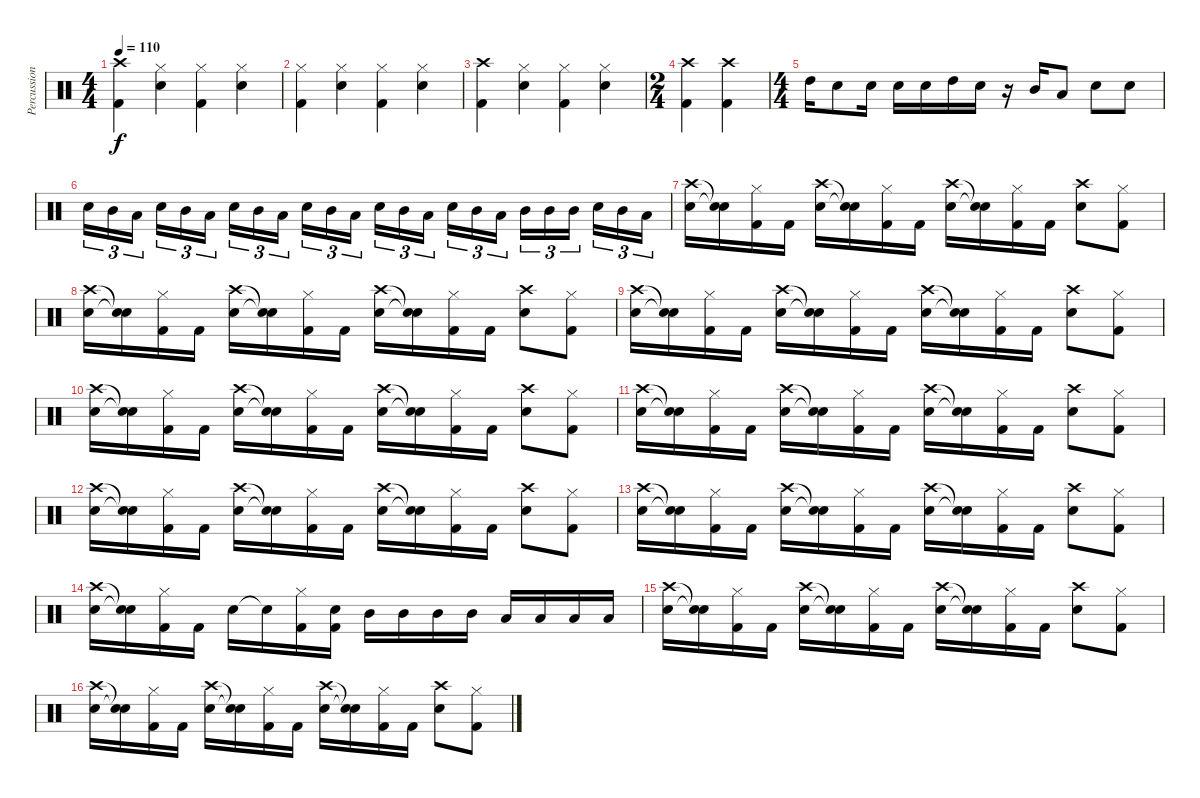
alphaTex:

\track ("Percussion" "Percussion") {instrument percussion}
\staff {score}
\articulation defaults
\ts (4 4)
\tempo 110
\clef neutral
\ks c
("Crash high (hit)" "Kick (hit) 2").4{dy f} ("Hi-Hat (closed)" "Snare (hit) 2").4 ("Hi-Hat (closed)" "Kick (hit) 2").4 ("Hi-Hat (closed)" "Snare (hit) 2").4 |
("Hi-Hat (closed)" "Kick (hit) 2").4 ("Hi-Hat (closed)" "Snare (hit) 2").4 ("Hi-Hat (closed)" "Kick (hit) 2").4 ("Hi-Hat (closed)" "Snare (hit) 2").4 |
("Crash high (hit)" "Kick (hit) 2").4 ("Hi-Hat (closed)" "Snare (hit) 2").4 ("Hi-Hat (closed)" "Kick (hit) 2").4 ("Hi-Hat (closed)" "Snare (hit) 2").4 |
\ts (2 4)
("Crash high (hit)" "Kick (hit) 2").4 ("Crash high (hit)" "Kick (hit) 2").4 |
\ts (4 4)
"High Tom (hit)".16 "Snare (hit) 2".8 "Snare (hit) 2".16 "Snare (hit) 2".16 "Snare (hit) 2".16 "High Tom (hit)".16 "Snare (hit) 2".16 r.16 "Mid Tom (hit)".16 "Low Tom (hit)".8 "Snare (hit) 2".8 "Snare (hit) 2".8 |
"Snare (hit) 2".16{tu (3 2)} "Mid Tom (hit)".16{tu (3 2)} "Low Tom (hit)".16{tu (3 2)} "Snare (hit) 2".16{tu (3 2)} "Mid Tom (hit)".16{tu (3 2)} "Low Tom (hit)".16{tu (3 2)} "Snare (hit) 2".16{tu (3 2)} "Mid Tom (hit)".16{tu (3 2)} "Low Tom (hit)".16{tu (3 2)} "Snare (hit) 2".16{tu (3 2)} "Mid Tom (hit)".16{tu (3 2)} "Low Tom (hit)".16{tu (3 2)} "Snare (hit) 2".16{tu (3 2)} "Mid Tom (hit)".16{tu (3 2)} "Low Tom (hit)".16{tu (3 2)} "Snare (hit) 2".16{tu (3 2)} "Mid Tom (hit)".16{tu (3 2)} "Low Tom (hit)".16{tu (3 2)} "Mid Tom (hit)".16{tu (3 2)} "Mid Tom (hit)".16{tu (3 2)} "Mid Tom (hit)".16{tu (3 2)} "Snare (hit) 2".16{tu (3 2)} "Mid Tom (hit)".16{tu (3 2)} "Low Tom (hit)".16{tu (3 2)} |
("Crash high (hit)" "Snare (hit) 2").16 ("Snare (hit)"{t} "Snare (hit)"{t}).16 ("Hi-Hat (closed)" "Kick (hit) 2").16 "Kick (hit) 2".16 ("Crash high (hit)" "Snare (hit) 2").16 ("Snare (hit)"{t} "Snare (hit)"{t}).16 ("Hi-Hat (closed)" "Kick (hit) 2").16 "Kick (hit) 2".16 ("Crash high (hit)" "Snare (hit) 2").16 ("Snare (hit)"{t} "Snare (hit)"{t}).16 ("Hi-Hat (closed)" "Kick (hit) 2").16 "Kick (hit) 2".16 ("Crash high (hit)" "Snare (hit) 2").8 ("Hi-Hat (closed)" "Kick (hit) 2").8 |
("Crash high (hit)" "Snare (hit) 2").16 ("Snare (hit)"{t} "Snare (hit)"{t}).16 ("Hi-Hat (closed)" "Kick (hit) 2").16 "Kick (hit) 2".16 ("Crash high (hit)" "Snare (hit) 2").16 ("Snare (hit)"{t} "Snare (hit)"{t}).16 ("Hi-Hat (closed)" "Kick (hit) 2").16 "Kick (hit) 2".16 ("Crash high (hit)" "Snare (hit) 2").16 ("Snare (hit)"{t} "Snare (hit)"{t}).16 ("Hi-Hat (closed)" "Kick (hit) 2").16 "Kick (hit) 2".16 ("Crash high (hit)" "Snare (hit) 2").8 ("Hi-Hat (closed)" "Kick (hit) 2").8 |
("Crash high (hit)" "Snare (hit) 2").16 ("Snare (hit)"{t} "Snare (hit)"{t}).16 ("Hi-Hat (closed)" "Kick (hit) 2").16 "Kick (hit) 2".16 ("Crash high (hit)" "Snare (hit) 2").16 ("Snare (hit)"{t} "Snare (hit)"{t}).16 ("Hi-Hat (closed)" "Kick (hit) 2").16 "Kick (hit) 2".16 ("Crash high (hit)" "Snare (hit) 2").16 ("Snare (hit)"{t} "Snare (hit)"{t}).16 ("Hi-Hat (closed)" "Kick (hit) 2").16 "Kick (hit) 2".16 ("Crash high (hit)" "Snare (hit) 2").8 ("Hi-Hat (closed)" "Kick (hit) 2").8 |
("Crash high (hit)" "Snare (hit) 2").16 ("Snare (hit)"{t} "Snare (hit)"{t}).16 ("Hi-Hat (closed)" "Kick (hit) 2").16 "Kick (hit) 2".16 ("Crash high (hit)" "Snare (hit) 2").16 ("Snare (hit)"{t} "Snare (hit)"{t}).16 ("Hi-Hat (closed)" "Kick (hit) 2").16 "Kick (hit) 2".16 ("Crash high (hit)" "Snare (hit) 2").16 ("Snare (hit)"{t} "Snare (hit)"{t}).16 ("Hi-Hat (closed)" "Kick (hit) 2").16 "Kick (hit) 2".16 ("Crash high (hit)" "Snare (hit) 2").8 ("Hi-Hat (closed)" "Kick (hit) 2").8 |
("Crash high (hit)" "Snare (hit) 2").16 ("Snare (hit)"{t} "Snare (hit)"{t}).16 ("Hi-Hat (closed)" "Kick (hit) 2").16 "Kick (hit) 2".16 ("Crash high (hit)" "Snare (hit) 2").16 ("Snare (hit)"{t} "Snare (hit)"{t}).16 ("Hi-Hat (closed)" "Kick (hit) 2").16 "Kick (hit) 2".16 ("Crash high (hit)" "Snare (hit) 2").16 ("Snare (hit)"{t} "Snare (hit)"{t}).16 ("Hi-Hat (closed)" "Kick (hit) 2").16 "Kick (hit) 2".16 ("Crash high (hit)" "Snare (hit) 2").8 ("Hi-Hat (closed)" "Kick (hit) 2").8 |
("Crash high (hit)" "Snare (hit) 2").16 ("Snare (hit)"{t} "Snare (hit)"{t}).16 ("Hi-Hat (closed)" "Kick (hit) 2").16 "Kick (hit) 2".16 ("Crash high (hit)" "Snare (hit) 2").16 ("Snare (hit)"{t} "Snare (hit)"{t}).16 ("Hi-Hat (closed)" "Kick (hit) 2").16 "Kick (hit) 2".16 ("Crash high (hit)" "Snare (hit) 2").16 ("Snare (hit)"{t} "Snare (hit)"{t}).16 ("Hi-Hat (closed)" "Kick (hit) 2").16 "Kick (hit) 2".16 ("Crash high (hit)" "Snare (hit) 2").8 ("Hi-Hat (closed)" "Kick (hit) 2").8 |
("Crash high (hit)" "Snare (hit) 2").16 ("Snare (hit)"{t} "Snare (hit)"{t}).16 ("Hi-Hat (closed)" "Kick (hit) 2").16 "Kick (hit) 2".16 ("Crash high (hit)" "Snare (hit) 2").16 ("Snare (hit)"{t} "Snare (hit)"{t}).16 ("Hi-Hat (closed)" "Kick (hit) 2").16 "Kick (hit) 2".16 ("Crash high (hit)" "Snare (hit) 2").16 ("Snare (hit)"{t} "Snare (hit)"{t}).16 ("Hi-Hat (closed)" "Kick (hit) 2").16 "Kick (hit) 2".16 ("Crash high (hit)" "Snare (hit) 2").8 ("Hi-Hat (closed)" "Kick (hit) 2").8 |
("Crash high (hit)" "Snare (hit) 2").16 ("Snare (hit)"{t} "Snare (hit)"{t}).16 ("Hi-Hat (closed)" "Kick (hit) 2").16 "Kick (hit) 2".16 "Snare (hit) 2".16 "Snare (hit)"{t}.16 ("Hi-Hat (closed)" "Kick (hit) 2").16 ("Snare (hit) 2" "Kick (hit) 2").16 "Mid Tom (hit)".16 "Mid Tom (hit)".16 "Mid Tom (hit)".16 "Mid Tom (hit)".16 "Low Tom (hit)".16 "Low Tom (hit)".16 "Low Tom (hit)".16 "Low Tom (hit)".16 |
("Crash high (hit)" "Snare (hit) 2").16 ("Snare (hit)"{t} "Snare (hit)"{t}).16 ("Hi-Hat (closed)" "Kick (hit) 2").16 "Kick (hit) 2".16 ("Crash high (hit)" "Snare (hit) 2").16 ("Snare (hit)"{t} "Snare (hit)"{t}).16 ("Hi-Hat (closed)" "Kick (hit) 2").16 "Kick (hit) 2".16 ("Crash high (hit)" "Snare (hit) 2").16 ("Snare (hit)"{t} "Snare (hit)"{t}).16 ("Hi-Hat (closed)" "Kick (hit) 2").16 "Kick (hit) 2".16 ("Crash high (hit)" "Snare (hit) 2").8 ("Hi-Hat (closed)" "Kick (hit) 2").8 |
("Crash high (hit)" "Snare (hit) 2").16 ("Snare (hit)"{t} "Snare (hit)"{t}).16 ("Hi-Hat (closed)" "Kick (hit) 2").16 "Kick (hit) 2".16 ("Crash high (hit)" "Snare (hit) 2").16 ("Snare (hit)"{t} "Snare (hit)"{t}).16 ("Hi-Hat (closed)" "Kick (hit) 2").16 "Kick (hit) 2".16 ("Crash high (hit)" "Snare (hit) 2").16 ("Snare (hit)"{t} "Snare (hit)"{t}).16 ("Hi-Hat (closed)" "Kick (hit) 2").16 "Kick (hit) 2".16 ("Crash high (hit)" "Snare (hit) 2").8 ("Hi-Hat (closed)" "Kick (hit) 2").8
